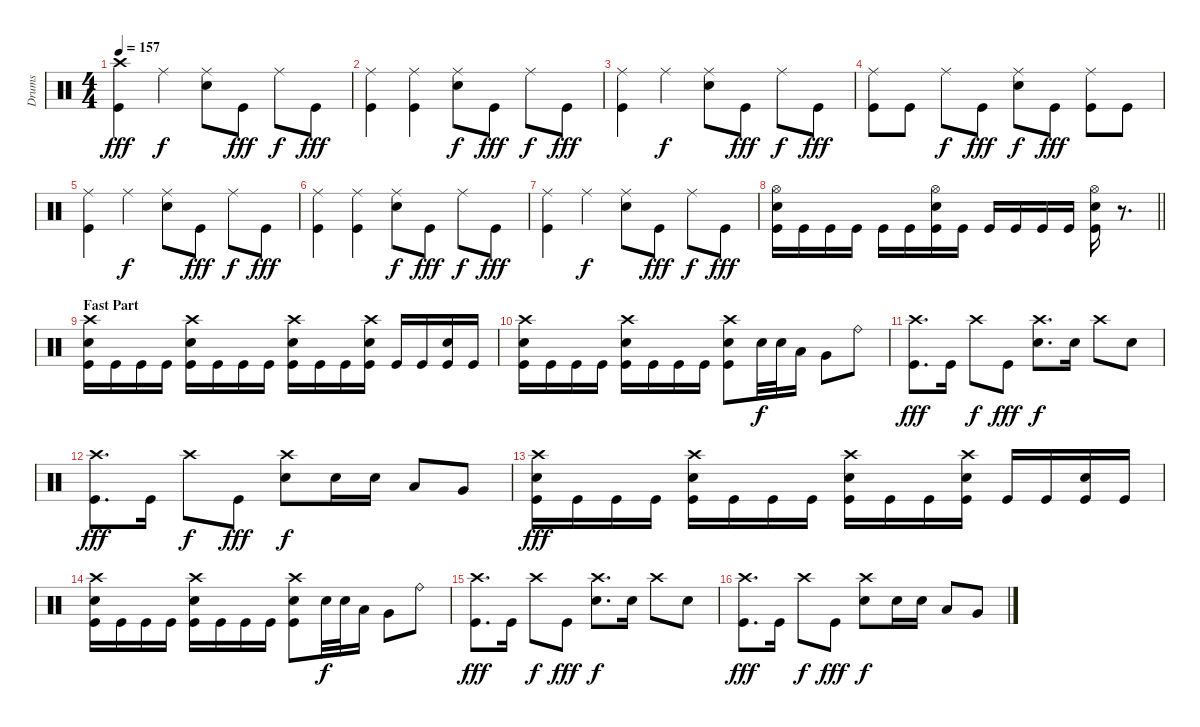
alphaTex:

\track ("Drums" "Drums") {instrument percussion}
\staff {score}
\articulation defaults
\ts (4 4)
\tempo 157
\clef neutral
\ks c
("Crash high (hit)" "Kick (hit)").4{dy fff} "Ride (middle)".4{dy f} ("Ride (middle)" "Snare (hit) 2").8 "Kick (hit)".8{dy fff} "Ride (middle)".8{dy f} "Kick (hit)".8{dy fff} |
("Ride (middle)" "Kick (hit)").4 ("Ride (middle)" "Kick (hit)").4 ("Ride (middle)" "Snare (hit) 2").8{dy f} "Kick (hit)".8{dy fff} "Ride (middle)".8{dy f} "Kick (hit)".8{dy fff} |
("Ride (middle)" "Kick (hit)").4 "Ride (middle)".4{dy f} ("Ride (middle)" "Snare (hit) 2").8 "Kick (hit)".8{dy fff} "Ride (middle)".8{dy f} "Kick (hit)".8{dy fff} |
("Ride (middle)" "Kick (hit)").8 "Kick (hit)".8 "Ride (middle)".8{dy f} "Kick (hit)".8{dy fff} ("Ride (middle)" "Snare (hit) 2").8{dy f} "Kick (hit)".8{dy fff} ("Ride (middle)" "Kick (hit)").8 "Kick (hit)".8 |
("Ride (middle)" "Kick (hit)").4 "Ride (middle)".4{dy f} ("Ride (middle)" "Snare (hit) 2").8 "Kick (hit)".8{dy fff} "Ride (middle)".8{dy f} "Kick (hit)".8{dy fff} |
("Ride (middle)" "Kick (hit)").4 ("Ride (middle)" "Kick (hit)").4 ("Ride (middle)" "Snare (hit) 2").8{dy f} "Kick (hit)".8{dy fff} "Ride (middle)".8{dy f} "Kick (hit)".8{dy fff} |
("Ride (middle)" "Kick (hit)").4 "Ride (middle)".4{dy f} ("Ride (middle)" "Snare (hit) 2").8 "Kick (hit)".8{dy fff} "Ride (middle)".8{dy f} "Kick (hit)".8{dy fff} |
\barLineRight lightlight
("Hi-Hat (open)" "Snare (hit) 2" "Kick (hit)").16 "Kick (hit)".16 "Kick (hit)".16 "Kick (hit)".16 "Kick (hit)".16 "Kick (hit)".16 ("Hi-Hat (open)" "Snare (hit) 2" "Kick (hit)").16 "Kick (hit)".16 "Kick (hit)".16 "Kick (hit)".16 "Kick (hit)".16 "Kick (hit)".16 ("Hi-Hat (open)" "Snare (hit) 2" "Kick (hit)").16 r.8{d} |
\section ("" "Fast Part")
("Crash high (hit)" "Snare (hit) 2" "Kick (hit)").16 "Kick (hit)".16 "Kick (hit)".16 "Kick (hit)".16 ("Crash high (hit)" "Snare (hit) 2" "Kick (hit)").16 "Kick (hit)".16 "Kick (hit)".16 "Kick (hit)".16 ("Crash high (hit)" "Snare (hit) 2" "Kick (hit)").16 "Kick (hit)".16 "Kick (hit)".16 ("Crash high (hit)" "Snare (hit) 2" "Kick (hit)").16 "Kick (hit)".16 "Kick (hit)".16 ("Snare (hit) 2" "Kick (hit)").16 "Kick (hit)".16 |
("Crash high (hit)" "Snare (hit) 2" "Kick (hit)").16 "Kick (hit)".16 "Kick (hit)".16 "Kick (hit)".16 ("Crash high (hit)" "Snare (hit) 2" "Kick (hit)").16 "Kick (hit)".16 "Kick (hit)".16 "Kick (hit)".16 ("Crash high (hit)" "Snare (hit) 2" "Kick (hit)").8 "Snare (hit) 2".32{dy f} "Snare (hit) 2".32 "Low Tom (hit)".16 "Very Low Tom (hit)".8 "Ride (bell)".8 |
("Crash high (hit)" "Kick (hit)").8{d dy fff} "Kick (hit)".16 "Crash high (hit)".8{dy f} "Kick (hit)".8{dy fff} ("Crash high (hit)" "Snare (hit) 2").8{d dy f} "Snare (hit) 2".16 "Crash high (hit)".8 "Snare (hit) 2".8 |
("Crash high (hit)" "Kick (hit)").8{d dy fff} "Kick (hit)".16 "Crash high (hit)".8{dy f} "Kick (hit)".8{dy fff} ("Crash high (hit)" "Snare (hit) 2").8{dy f} "Snare (hit) 2".16 "Snare (hit) 2".16 "Low Tom (hit)".8 "Very Low Tom (hit)".8 |
("Crash high (hit)" "Snare (hit) 2" "Kick (hit)").16{dy fff} "Kick (hit)".16 "Kick (hit)".16 "Kick (hit)".16 ("Crash high (hit)" "Snare (hit) 2" "Kick (hit)").16 "Kick (hit)".16 "Kick (hit)".16 "Kick (hit)".16 ("Crash high (hit)" "Snare (hit) 2" "Kick (hit)").16 "Kick (hit)".16 "Kick (hit)".16 ("Crash high (hit)" "Snare (hit) 2" "Kick (hit)").16 "Kick (hit)".16 "Kick (hit)".16 ("Snare (hit) 2" "Kick (hit)").16 "Kick (hit)".16 |
("Crash high (hit)" "Snare (hit) 2" "Kick (hit)").16 "Kick (hit)".16 "Kick (hit)".16 "Kick (hit)".16 ("Crash high (hit)" "Snare (hit) 2" "Kick (hit)").16 "Kick (hit)".16 "Kick (hit)".16 "Kick (hit)".16 ("Crash high (hit)" "Snare (hit) 2" "Kick (hit)").8 "Snare (hit) 2".32{dy f} "Snare (hit) 2".32 "Low Tom (hit)".16 "Very Low Tom (hit)".8 "Ride (bell)".8 |
("Crash high (hit)" "Kick (hit)").8{d dy fff} "Kick (hit)".16 "Crash high (hit)".8{dy f} "Kick (hit)".8{dy fff} ("Crash high (hit)" "Snare (hit) 2").8{d dy f} "Snare (hit) 2".16 "Crash high (hit)".8 "Snare (hit) 2".8 |
("Crash high (hit)" "Kick (hit)").8{d dy fff} "Kick (hit)".16 "Crash high (hit)".8{dy f} "Kick (hit)".8{dy fff} ("Crash high (hit)" "Snare (hit) 2").8{dy f} "Snare (hit) 2".16 "Snare (hit) 2".16 "Low Tom (hit)".8 "Very Low Tom (hit)".8
